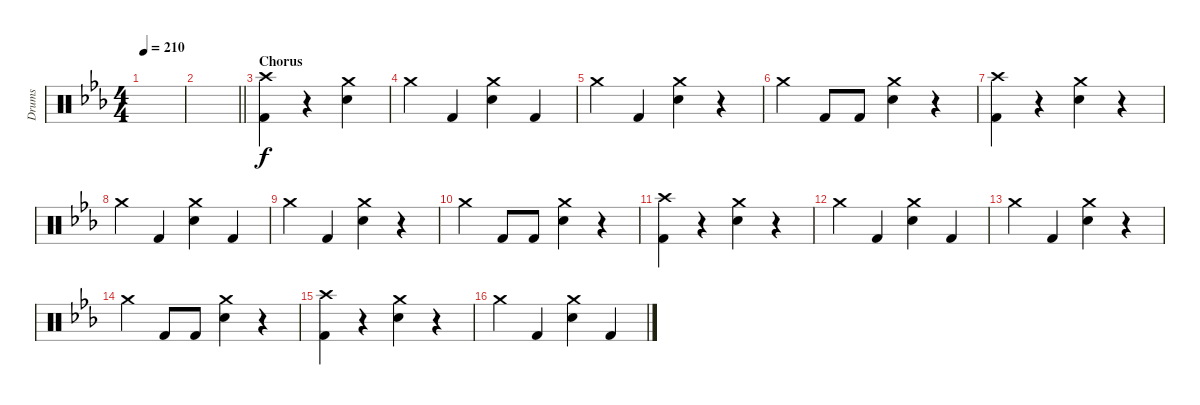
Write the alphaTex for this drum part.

\track ("Drums" "Drums") {instrument percussion}
\staff {score}
\articulation defaults
\ts (4 4)
\tempo 210
\clef neutral
\ks cminor
|
\barLineRight lightlight
|
\section ("" "Chorus")
("Crash high (hit)" "Kick (hit) 2").4 r.4 ("Crash medium (hit)" "Electric Snare (hit)").4 |
"Crash medium (hit)".4 "Kick (hit) 2".4 ("Crash medium (hit)" "Electric Snare (hit)").4 "Kick (hit) 2".4 |
"Crash medium (hit)".4 "Kick (hit) 2".4 ("Crash medium (hit)" "Electric Snare (hit)").4 r.4 |
"Crash medium (hit)".4 "Kick (hit) 2".8 "Kick (hit) 2".8 ("Crash medium (hit)" "Electric Snare (hit)").4 r.4 |
("Crash high (hit)" "Kick (hit) 2").4 r.4 ("Crash medium (hit)" "Electric Snare (hit)").4 r.4 |
"Crash medium (hit)".4 "Kick (hit) 2".4 ("Crash medium (hit)" "Electric Snare (hit)").4 "Kick (hit) 2".4 |
"Crash medium (hit)".4 "Kick (hit) 2".4 ("Crash medium (hit)" "Electric Snare (hit)").4 r.4 |
"Crash medium (hit)".4 "Kick (hit) 2".8 "Kick (hit) 2".8 ("Crash medium (hit)" "Electric Snare (hit)").4 r.4 |
("Crash high (hit)" "Kick (hit) 2").4 r.4 ("Crash medium (hit)" "Electric Snare (hit)").4 r.4 |
"Crash medium (hit)".4 "Kick (hit) 2".4 ("Crash medium (hit)" "Electric Snare (hit)").4 "Kick (hit) 2".4 |
"Crash medium (hit)".4 "Kick (hit) 2".4 ("Crash medium (hit)" "Electric Snare (hit)").4 r.4 |
"Crash medium (hit)".4 "Kick (hit) 2".8 "Kick (hit) 2".8 ("Crash medium (hit)" "Electric Snare (hit)").4 r.4 |
("Crash high (hit)" "Kick (hit) 2").4 r.4 ("Crash medium (hit)" "Electric Snare (hit)").4 r.4 |
"Crash medium (hit)".4 "Kick (hit) 2".4 ("Crash medium (hit)" "Electric Snare (hit)").4 "Kick (hit) 2".4
